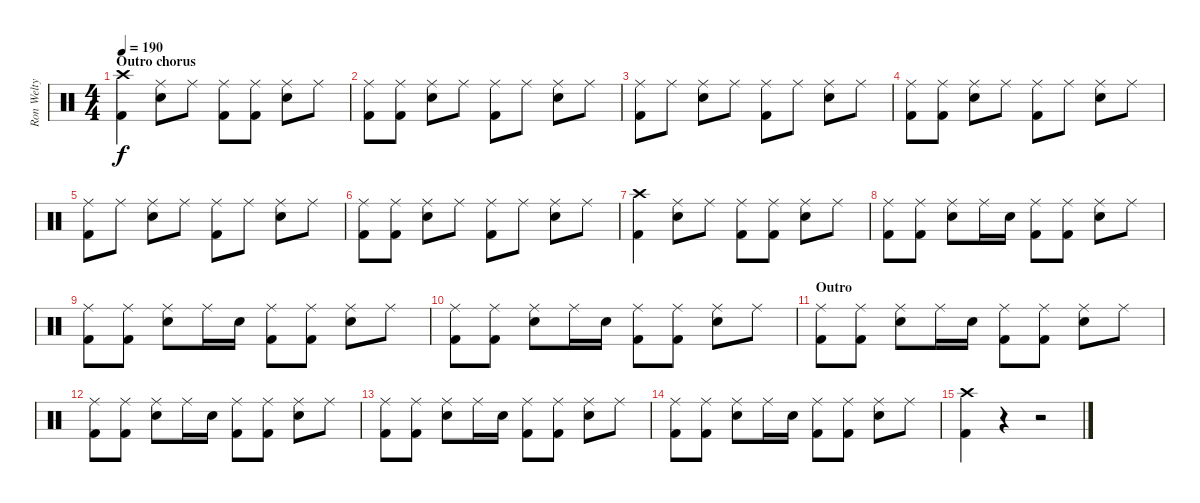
\track ("Ron Welty" "Ron Welty") {instrument percussion}
\staff {score}
\articulation defaults
\ts (4 4)
\section ("" "Outro chorus")
\tempo 190
\clef neutral
\ks c
("Crash high (hit)" "Kick (hit) 2").4{dy f} ("Ride (middle)" "Electric Snare (hit)").8 "Ride (middle)".8 ("Ride (middle)" "Kick (hit) 2").8 ("Ride (middle)" "Kick (hit) 2").8 ("Ride (middle)" "Electric Snare (hit)").8 "Ride (middle)".8 |
("Ride (middle)" "Kick (hit) 2").8 ("Ride (middle)" "Kick (hit) 2").8 ("Ride (middle)" "Electric Snare (hit)").8 "Ride (middle)".8 ("Ride (middle)" "Kick (hit) 2").8 "Ride (middle)".8 ("Ride (middle)" "Electric Snare (hit)").8 "Ride (middle)".8 |
("Ride (middle)" "Kick (hit) 2").8 "Ride (middle)".8 ("Ride (middle)" "Electric Snare (hit)").8 "Ride (middle)".8 ("Ride (middle)" "Kick (hit) 2").8 "Ride (middle)".8 ("Ride (middle)" "Electric Snare (hit)").8 "Ride (middle)".8 |
("Ride (middle)" "Kick (hit) 2").8 ("Ride (middle)" "Kick (hit) 2").8 ("Ride (middle)" "Electric Snare (hit)").8 "Ride (middle)".8 ("Ride (middle)" "Kick (hit) 2").8 "Ride (middle)".8 ("Ride (middle)" "Electric Snare (hit)").8 "Ride (middle)".8 |
("Ride (middle)" "Kick (hit) 2").8 "Ride (middle)".8 ("Ride (middle)" "Electric Snare (hit)").8 "Ride (middle)".8 ("Ride (middle)" "Kick (hit) 2").8 "Ride (middle)".8 ("Ride (middle)" "Electric Snare (hit)").8 "Ride (middle)".8 |
("Ride (middle)" "Kick (hit) 2").8 ("Ride (middle)" "Kick (hit) 2").8 ("Ride (middle)" "Electric Snare (hit)").8 "Ride (middle)".8 ("Ride (middle)" "Kick (hit) 2").8 "Ride (middle)".8 ("Ride (middle)" "Electric Snare (hit)").8 "Ride (middle)".8 |
("Crash high (hit)" "Kick (hit) 2").4 ("Ride (middle)" "Electric Snare (hit)").8 "Ride (middle)".8 ("Ride (middle)" "Kick (hit) 2").8 ("Ride (middle)" "Kick (hit) 2").8 ("Ride (middle)" "Electric Snare (hit)").8 "Ride (middle)".8 |
("Ride (middle)" "Kick (hit) 2").8 ("Ride (middle)" "Kick (hit) 2").8 ("Ride (middle)" "Electric Snare (hit)").8 "Ride (middle)".16 "Electric Snare (hit)".16 ("Ride (middle)" "Kick (hit) 2").8 ("Ride (middle)" "Kick (hit) 2").8 ("Ride (middle)" "Electric Snare (hit)").8 "Ride (middle)".8 |
("Ride (middle)" "Kick (hit) 2").8 ("Ride (middle)" "Kick (hit) 2").8 ("Ride (middle)" "Electric Snare (hit)").8 "Ride (middle)".16 "Electric Snare (hit)".16 ("Ride (middle)" "Kick (hit) 2").8 ("Ride (middle)" "Kick (hit) 2").8 ("Ride (middle)" "Electric Snare (hit)").8 "Ride (middle)".8 |
("Ride (middle)" "Kick (hit) 2").8 ("Ride (middle)" "Kick (hit) 2").8 ("Ride (middle)" "Electric Snare (hit)").8 "Ride (middle)".16 "Electric Snare (hit)".16 ("Ride (middle)" "Kick (hit) 2").8 ("Ride (middle)" "Kick (hit) 2").8 ("Ride (middle)" "Electric Snare (hit)").8 "Ride (middle)".8 |
\section ("" "Outro")
("Ride (middle)" "Kick (hit) 2").8 ("Ride (middle)" "Kick (hit) 2").8 ("Ride (middle)" "Electric Snare (hit)").8 "Ride (middle)".16 "Electric Snare (hit)".16 ("Ride (middle)" "Kick (hit) 2").8 ("Ride (middle)" "Kick (hit) 2").8 ("Ride (middle)" "Electric Snare (hit)").8 "Ride (middle)".8 |
("Ride (middle)" "Kick (hit) 2").8 ("Ride (middle)" "Kick (hit) 2").8 ("Ride (middle)" "Electric Snare (hit)").8 "Ride (middle)".16 "Electric Snare (hit)".16 ("Ride (middle)" "Kick (hit) 2").8 ("Ride (middle)" "Kick (hit) 2").8 ("Ride (middle)" "Electric Snare (hit)").8 "Ride (middle)".8 |
("Ride (middle)" "Kick (hit) 2").8 ("Ride (middle)" "Kick (hit) 2").8 ("Ride (middle)" "Electric Snare (hit)").8 "Ride (middle)".16 "Electric Snare (hit)".16 ("Ride (middle)" "Kick (hit) 2").8 ("Ride (middle)" "Kick (hit) 2").8 ("Ride (middle)" "Electric Snare (hit)").8 "Ride (middle)".8 |
("Ride (middle)" "Kick (hit) 2").8 ("Ride (middle)" "Kick (hit) 2").8 ("Ride (middle)" "Electric Snare (hit)").8 "Ride (middle)".16 "Electric Snare (hit)".16 ("Ride (middle)" "Kick (hit) 2").8 ("Ride (middle)" "Kick (hit) 2").8 ("Ride (middle)" "Electric Snare (hit)").8 "Ride (middle)".8 |
("Crash high (hit)" "Kick (hit) 2").4 r.4 r.2
